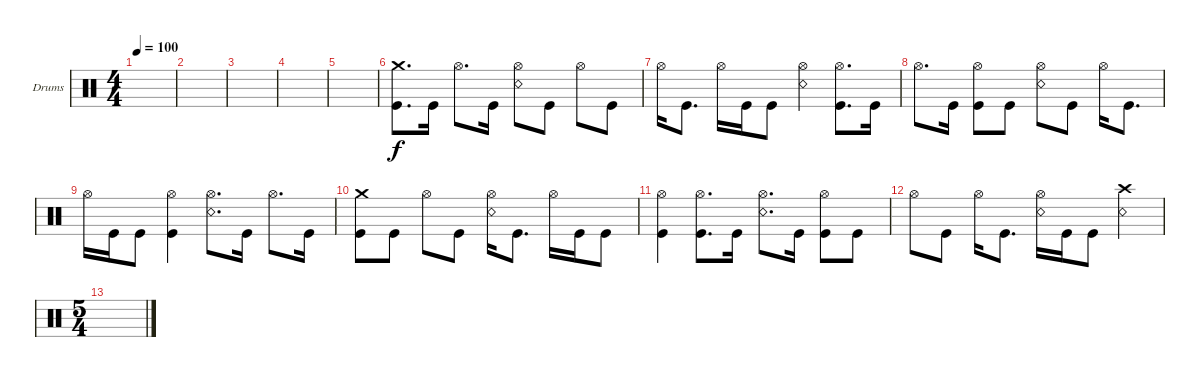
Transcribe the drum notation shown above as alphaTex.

\defaultSystemsLayout 4
\bracketExtendMode groupsimilarinstruments
\firstSystemTrackNameOrientation horizontal
\otherSystemsTrackNameOrientation horizontal
\track ("Drumkit" "Drums") {instrument percussion}
\staff {score}
\articulation defaults
\ts (4 4)
\tempo 100
\clef neutral
\ks c
|
|
|
|
|
("Kick (hit)" "Crash medium (hit)").8{d} "Kick (hit)".16 "Hi-Hat (open)".8{d} "Kick (hit)".16 ("Snare (rim shot)" "Hi-Hat (open)").8 "Kick (hit)".8 "Hi-Hat (open)".8 "Kick (hit)".8 |
"Hi-Hat (open)".16 "Kick (hit)".8{d} "Hi-Hat (open)".16 "Kick (hit)".16 "Kick (hit)".8 ("Hi-Hat (open)" "Snare (rim shot)").4 ("Kick (hit)" "Hi-Hat (open)").8{d} "Kick (hit)".16 |
"Hi-Hat (open)".8{d} "Kick (hit)".16 ("Kick (hit)" "Hi-Hat (open)").8 "Kick (hit)".8 ("Hi-Hat (open)" "Snare (rim shot)").8 "Kick (hit)".8 "Hi-Hat (open)".16 "Kick (hit)".8{d} |
"Hi-Hat (open)".16 "Kick (hit)".16 "Kick (hit)".8 ("Kick (hit)" "Hi-Hat (open)").4 ("Hi-Hat (open)" "Snare (rim shot)").8{d} "Kick (hit)".16 "Hi-Hat (open)".8{d} "Kick (hit)".16 |
("Kick (hit)" "Crash medium (hit)").8 "Kick (hit)".8 "Hi-Hat (open)".8 "Kick (hit)".8 ("Hi-Hat (open)" "Snare (rim shot)").16 "Kick (hit)".8{d} "Hi-Hat (open)".16 "Kick (hit)".16 "Kick (hit)".8 |
("Kick (hit)" "Hi-Hat (open)").4 ("Kick (hit)" "Hi-Hat (open)").8{d} "Kick (hit)".16 ("Hi-Hat (open)" "Snare (rim shot)").8{d} "Kick (hit)".16 ("Kick (hit)" "Hi-Hat (open)").8 "Kick (hit)".8 |
"Hi-Hat (open)".8 "Kick (hit)".8 "Hi-Hat (open)".16 "Kick (hit)".8{d} ("Hi-Hat (open)" "Snare (rim shot)").16 "Kick (hit)".16 "Kick (hit)".8 ("Snare (rim shot)" "Crash high (hit)").4 |
\ts (5 4)
